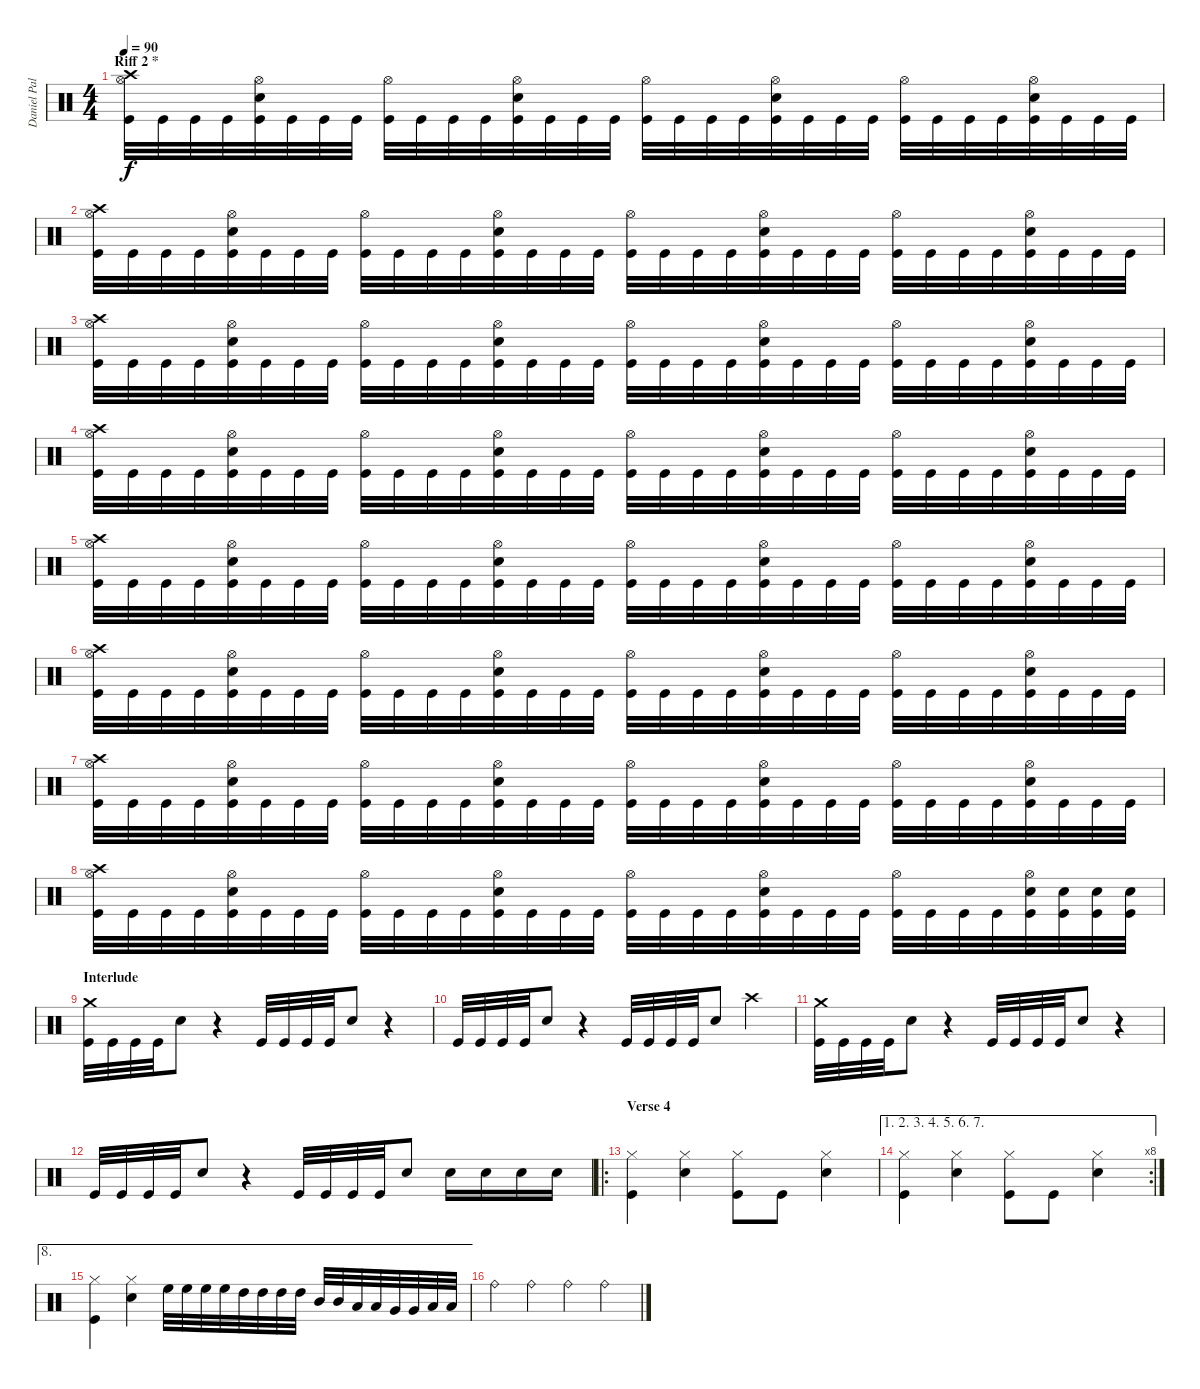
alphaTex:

\track ("Daniel Pal" "Daniel Pal") {instrument percussion}
\staff {score}
\articulation defaults
\ts (4 4)
\section ("" "Riff 2 *")
\tempo 90
\clef neutral
\ks c
("Crash high (hit)" "Hi-Hat (open)" "Kick (hit)").32{dy f} "Kick (hit)".32 "Kick (hit)".32 "Kick (hit)".32 ("Hi-Hat (open)" "Electric Snare (hit)" "Kick (hit)").32 "Kick (hit)".32 "Kick (hit)".32 "Kick (hit)".32 ("Hi-Hat (open)" "Kick (hit)").32 "Kick (hit)".32 "Kick (hit)".32 "Kick (hit)".32 ("Hi-Hat (open)" "Electric Snare (hit)" "Kick (hit)").32 "Kick (hit)".32 "Kick (hit)".32 "Kick (hit)".32 ("Hi-Hat (open)" "Kick (hit)").32 "Kick (hit)".32 "Kick (hit)".32 "Kick (hit)".32 ("Hi-Hat (open)" "Electric Snare (hit)" "Kick (hit)").32 "Kick (hit)".32 "Kick (hit)".32 "Kick (hit)".32 ("Hi-Hat (open)" "Kick (hit)").32 "Kick (hit)".32 "Kick (hit)".32 "Kick (hit)".32 ("Hi-Hat (open)" "Electric Snare (hit)" "Kick (hit)").32 "Kick (hit)".32 "Kick (hit)".32 "Kick (hit)".32 |
("Crash high (hit)" "Hi-Hat (open)" "Kick (hit)").32 "Kick (hit)".32 "Kick (hit)".32 "Kick (hit)".32 ("Hi-Hat (open)" "Electric Snare (hit)" "Kick (hit)").32 "Kick (hit)".32 "Kick (hit)".32 "Kick (hit)".32 ("Hi-Hat (open)" "Kick (hit)").32 "Kick (hit)".32 "Kick (hit)".32 "Kick (hit)".32 ("Hi-Hat (open)" "Electric Snare (hit)" "Kick (hit)").32 "Kick (hit)".32 "Kick (hit)".32 "Kick (hit)".32 ("Hi-Hat (open)" "Kick (hit)").32 "Kick (hit)".32 "Kick (hit)".32 "Kick (hit)".32 ("Hi-Hat (open)" "Electric Snare (hit)" "Kick (hit)").32 "Kick (hit)".32 "Kick (hit)".32 "Kick (hit)".32 ("Hi-Hat (open)" "Kick (hit)").32 "Kick (hit)".32 "Kick (hit)".32 "Kick (hit)".32 ("Hi-Hat (open)" "Electric Snare (hit)" "Kick (hit)").32 "Kick (hit)".32 "Kick (hit)".32 "Kick (hit)".32 |
("Crash high (hit)" "Hi-Hat (open)" "Kick (hit)").32 "Kick (hit)".32 "Kick (hit)".32 "Kick (hit)".32 ("Hi-Hat (open)" "Electric Snare (hit)" "Kick (hit)").32 "Kick (hit)".32 "Kick (hit)".32 "Kick (hit)".32 ("Hi-Hat (open)" "Kick (hit)").32 "Kick (hit)".32 "Kick (hit)".32 "Kick (hit)".32 ("Hi-Hat (open)" "Electric Snare (hit)" "Kick (hit)").32 "Kick (hit)".32 "Kick (hit)".32 "Kick (hit)".32 ("Hi-Hat (open)" "Kick (hit)").32 "Kick (hit)".32 "Kick (hit)".32 "Kick (hit)".32 ("Hi-Hat (open)" "Electric Snare (hit)" "Kick (hit)").32 "Kick (hit)".32 "Kick (hit)".32 "Kick (hit)".32 ("Hi-Hat (open)" "Kick (hit)").32 "Kick (hit)".32 "Kick (hit)".32 "Kick (hit)".32 ("Hi-Hat (open)" "Electric Snare (hit)" "Kick (hit)").32 "Kick (hit)".32 "Kick (hit)".32 "Kick (hit)".32 |
("Crash high (hit)" "Hi-Hat (open)" "Kick (hit)").32 "Kick (hit)".32 "Kick (hit)".32 "Kick (hit)".32 ("Hi-Hat (open)" "Electric Snare (hit)" "Kick (hit)").32 "Kick (hit)".32 "Kick (hit)".32 "Kick (hit)".32 ("Hi-Hat (open)" "Kick (hit)").32 "Kick (hit)".32 "Kick (hit)".32 "Kick (hit)".32 ("Hi-Hat (open)" "Electric Snare (hit)" "Kick (hit)").32 "Kick (hit)".32 "Kick (hit)".32 "Kick (hit)".32 ("Hi-Hat (open)" "Kick (hit)").32 "Kick (hit)".32 "Kick (hit)".32 "Kick (hit)".32 ("Hi-Hat (open)" "Electric Snare (hit)" "Kick (hit)").32 "Kick (hit)".32 "Kick (hit)".32 "Kick (hit)".32 ("Hi-Hat (open)" "Kick (hit)").32 "Kick (hit)".32 "Kick (hit)".32 "Kick (hit)".32 ("Hi-Hat (open)" "Electric Snare (hit)" "Kick (hit)").32 "Kick (hit)".32 "Kick (hit)".32 "Kick (hit)".32 |
("Crash high (hit)" "Hi-Hat (open)" "Kick (hit)").32 "Kick (hit)".32 "Kick (hit)".32 "Kick (hit)".32 ("Hi-Hat (open)" "Electric Snare (hit)" "Kick (hit)").32 "Kick (hit)".32 "Kick (hit)".32 "Kick (hit)".32 ("Hi-Hat (open)" "Kick (hit)").32 "Kick (hit)".32 "Kick (hit)".32 "Kick (hit)".32 ("Hi-Hat (open)" "Electric Snare (hit)" "Kick (hit)").32 "Kick (hit)".32 "Kick (hit)".32 "Kick (hit)".32 ("Hi-Hat (open)" "Kick (hit)").32 "Kick (hit)".32 "Kick (hit)".32 "Kick (hit)".32 ("Hi-Hat (open)" "Electric Snare (hit)" "Kick (hit)").32 "Kick (hit)".32 "Kick (hit)".32 "Kick (hit)".32 ("Hi-Hat (open)" "Kick (hit)").32 "Kick (hit)".32 "Kick (hit)".32 "Kick (hit)".32 ("Hi-Hat (open)" "Electric Snare (hit)" "Kick (hit)").32 "Kick (hit)".32 "Kick (hit)".32 "Kick (hit)".32 |
("Crash high (hit)" "Hi-Hat (open)" "Kick (hit)").32 "Kick (hit)".32 "Kick (hit)".32 "Kick (hit)".32 ("Hi-Hat (open)" "Electric Snare (hit)" "Kick (hit)").32 "Kick (hit)".32 "Kick (hit)".32 "Kick (hit)".32 ("Hi-Hat (open)" "Kick (hit)").32 "Kick (hit)".32 "Kick (hit)".32 "Kick (hit)".32 ("Hi-Hat (open)" "Electric Snare (hit)" "Kick (hit)").32 "Kick (hit)".32 "Kick (hit)".32 "Kick (hit)".32 ("Hi-Hat (open)" "Kick (hit)").32 "Kick (hit)".32 "Kick (hit)".32 "Kick (hit)".32 ("Hi-Hat (open)" "Electric Snare (hit)" "Kick (hit)").32 "Kick (hit)".32 "Kick (hit)".32 "Kick (hit)".32 ("Hi-Hat (open)" "Kick (hit)").32 "Kick (hit)".32 "Kick (hit)".32 "Kick (hit)".32 ("Hi-Hat (open)" "Electric Snare (hit)" "Kick (hit)").32 "Kick (hit)".32 "Kick (hit)".32 "Kick (hit)".32 |
("Crash high (hit)" "Hi-Hat (open)" "Kick (hit)").32 "Kick (hit)".32 "Kick (hit)".32 "Kick (hit)".32 ("Hi-Hat (open)" "Electric Snare (hit)" "Kick (hit)").32 "Kick (hit)".32 "Kick (hit)".32 "Kick (hit)".32 ("Hi-Hat (open)" "Kick (hit)").32 "Kick (hit)".32 "Kick (hit)".32 "Kick (hit)".32 ("Hi-Hat (open)" "Electric Snare (hit)" "Kick (hit)").32 "Kick (hit)".32 "Kick (hit)".32 "Kick (hit)".32 ("Hi-Hat (open)" "Kick (hit)").32 "Kick (hit)".32 "Kick (hit)".32 "Kick (hit)".32 ("Hi-Hat (open)" "Electric Snare (hit)" "Kick (hit)").32 "Kick (hit)".32 "Kick (hit)".32 "Kick (hit)".32 ("Hi-Hat (open)" "Kick (hit)").32 "Kick (hit)".32 "Kick (hit)".32 "Kick (hit)".32 ("Hi-Hat (open)" "Electric Snare (hit)" "Kick (hit)").32 "Kick (hit)".32 "Kick (hit)".32 "Kick (hit)".32 |
("Crash high (hit)" "Hi-Hat (open)" "Kick (hit)").32 "Kick (hit)".32 "Kick (hit)".32 "Kick (hit)".32 ("Hi-Hat (open)" "Electric Snare (hit)" "Kick (hit)").32 "Kick (hit)".32 "Kick (hit)".32 "Kick (hit)".32 ("Hi-Hat (open)" "Kick (hit)").32 "Kick (hit)".32 "Kick (hit)".32 "Kick (hit)".32 ("Hi-Hat (open)" "Electric Snare (hit)" "Kick (hit)").32 "Kick (hit)".32 "Kick (hit)".32 "Kick (hit)".32 ("Hi-Hat (open)" "Kick (hit)").32 "Kick (hit)".32 "Kick (hit)".32 "Kick (hit)".32 ("Hi-Hat (open)" "Electric Snare (hit)" "Kick (hit)").32 "Kick (hit)".32 "Kick (hit)".32 "Kick (hit)".32 ("Hi-Hat (open)" "Kick (hit)").32 "Kick (hit)".32 "Kick (hit)".32 "Kick (hit)".32 ("Hi-Hat (open)" "Electric Snare (hit)" "Kick (hit)").32 ("Electric Snare (hit)" "Kick (hit)").32 ("Electric Snare (hit)" "Kick (hit)").32 ("Electric Snare (hit)" "Kick (hit)").32 |
\section ("" "Interlude")
("Crash medium (hit)" "Kick (hit)").32 "Kick (hit)".32 "Kick (hit)".32 "Kick (hit)".32 "Electric Snare (hit)".8 r.4 "Kick (hit)".32 "Kick (hit)".32 "Kick (hit)".32 "Kick (hit)".32 "Electric Snare (hit)".8 r.4 |
"Kick (hit)".32 "Kick (hit)".32 "Kick (hit)".32 "Kick (hit)".32 "Electric Snare (hit)".8 r.4 "Kick (hit)".32 "Kick (hit)".32 "Kick (hit)".32 "Kick (hit)".32 "Electric Snare (hit)".8 "Crash high (hit)".4 |
("Crash medium (hit)" "Kick (hit)").32 "Kick (hit)".32 "Kick (hit)".32 "Kick (hit)".32 "Electric Snare (hit)".8 r.4 "Kick (hit)".32 "Kick (hit)".32 "Kick (hit)".32 "Kick (hit)".32 "Electric Snare (hit)".8 r.4 |
"Kick (hit)".32 "Kick (hit)".32 "Kick (hit)".32 "Kick (hit)".32 "Electric Snare (hit)".8 r.4 "Kick (hit)".32 "Kick (hit)".32 "Kick (hit)".32 "Kick (hit)".32 "Electric Snare (hit)".8 "Electric Snare (hit)".16 "Electric Snare (hit)".16 "Electric Snare (hit)".16 "Electric Snare (hit)".16 |
\ro
\section ("" "Verse 4")
("Hi-Hat (closed)" "Kick (hit)").4 ("Hi-Hat (closed)" "Electric Snare (hit)").4 ("Hi-Hat (closed)" "Kick (hit)").8 "Kick (hit)".8 ("Hi-Hat (closed)" "Electric Snare (hit)").4 |
\ae (1 2 3 4 5 6 7)
\rc 8
("Hi-Hat (closed)" "Kick (hit)").4 ("Hi-Hat (closed)" "Electric Snare (hit)").4 ("Hi-Hat (closed)" "Kick (hit)").8 "Kick (hit)".8 ("Hi-Hat (closed)" "Electric Snare (hit)").4 |
\ae 8
("Hi-Hat (closed)" "Kick (hit)").4 ("Hi-Hat (closed)" "Electric Snare (hit)").4 "High Floor Tom (hit)".32 "High Floor Tom (hit)".32 "High Floor Tom (hit)".32 "High Floor Tom (hit)".32 "High Tom (hit)".32 "High Tom (hit)".32 "High Tom (hit)".32 "High Tom (hit)".32 "Mid Tom (hit)".32 "Mid Tom (hit)".32 "Low Tom (hit)".32 "Low Tom (hit)".32 "Very Low Tom (hit)".32 "Very Low Tom (hit)".32 "Low Floor Tom (hit)".32 "Low Floor Tom (hit)".32 |
"Ride (bell)".4 "Ride (bell)".4 "Ride (bell)".4 "Ride (bell)".4
